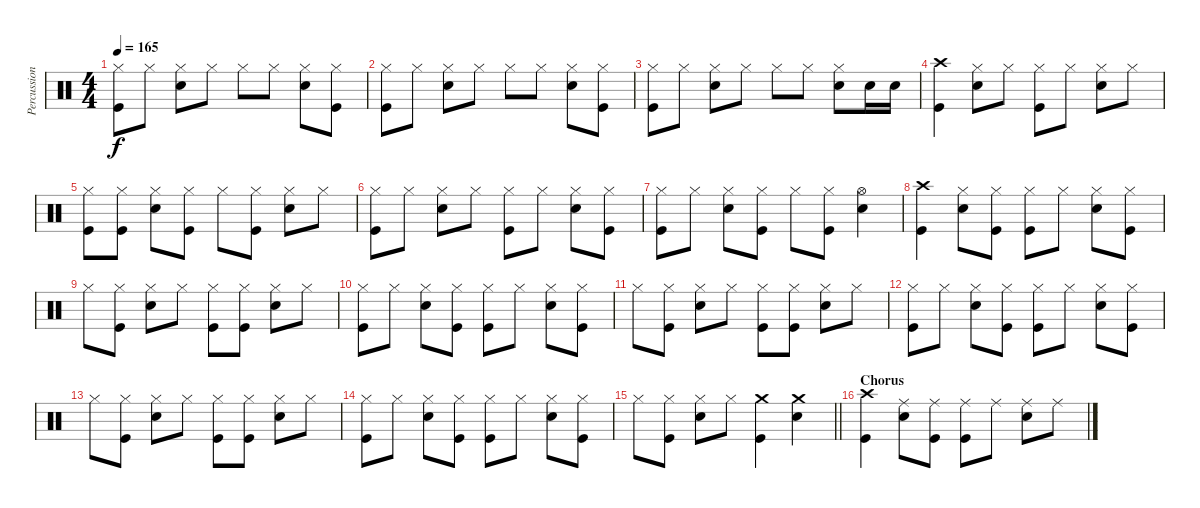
\track ("Percussion" "Percussion") {instrument percussion}
\staff {score}
\articulation defaults
\ts (4 4)
\tempo 165
\clef neutral
\ks c
("Kick (hit)" "Hi-Hat (closed)").8{dy f} "Hi-Hat (closed)".8 ("Hi-Hat (closed)" "Snare (hit) 2").8 "Hi-Hat (closed)".8 "Hi-Hat (closed)".8 "Hi-Hat (closed)".8 ("Hi-Hat (closed)" "Snare (hit) 2").8 ("Kick (hit)" "Hi-Hat (closed)").8 |
("Kick (hit)" "Hi-Hat (closed)").8 "Hi-Hat (closed)".8 ("Hi-Hat (closed)" "Snare (hit) 2").8 "Hi-Hat (closed)".8 "Hi-Hat (closed)".8 "Hi-Hat (closed)".8 ("Hi-Hat (closed)" "Snare (hit) 2").8 ("Kick (hit)" "Hi-Hat (closed)").8 |
("Kick (hit)" "Hi-Hat (closed)").8 "Hi-Hat (closed)".8 ("Hi-Hat (closed)" "Snare (hit) 2").8 "Hi-Hat (closed)".8 "Hi-Hat (closed)".8 "Hi-Hat (closed)".8 ("Hi-Hat (closed)" "Snare (hit) 2").8 "Snare (hit) 2".16 "Snare (hit) 2".16 |
("Kick (hit)" "Crash high (hit)").4 ("Hi-Hat (closed)" "Snare (hit) 2").8 "Hi-Hat (closed)".8 ("Kick (hit)" "Hi-Hat (closed)").8 "Hi-Hat (closed)".8 ("Hi-Hat (closed)" "Snare (hit) 2").8 "Hi-Hat (closed)".8 |
("Kick (hit)" "Hi-Hat (closed)").8 ("Kick (hit)" "Hi-Hat (closed)").8 ("Hi-Hat (closed)" "Snare (hit) 2").8 ("Kick (hit)" "Hi-Hat (closed)").8 "Hi-Hat (closed)".8 ("Kick (hit)" "Hi-Hat (closed)").8 ("Hi-Hat (closed)" "Snare (hit) 2").8 "Hi-Hat (closed)".8 |
("Kick (hit)" "Hi-Hat (closed)").8 "Hi-Hat (closed)".8 ("Hi-Hat (closed)" "Snare (hit) 2").8 "Hi-Hat (closed)".8 ("Kick (hit)" "Hi-Hat (closed)").8 "Hi-Hat (closed)".8 ("Hi-Hat (closed)" "Snare (hit) 2").8 ("Kick (hit)" "Hi-Hat (closed)").8 |
("Kick (hit)" "Hi-Hat (closed)").8 "Hi-Hat (closed)".8 ("Hi-Hat (closed)" "Snare (hit) 2").8 ("Kick (hit)" "Hi-Hat (closed)").8 "Hi-Hat (closed)".8 ("Kick (hit)" "Hi-Hat (closed)").8 ("Hi-Hat (open)" "Snare (hit) 2").4 |
("Kick (hit)" "Crash high (hit)").4 ("Hi-Hat (closed)" "Snare (hit) 2").8 ("Kick (hit)" "Hi-Hat (closed)").8 ("Kick (hit)" "Hi-Hat (closed)").8 "Hi-Hat (closed)".8 ("Hi-Hat (closed)" "Snare (hit) 2").8 ("Kick (hit)" "Hi-Hat (closed)").8 |
"Hi-Hat (closed)".8 ("Kick (hit)" "Hi-Hat (closed)").8 ("Hi-Hat (closed)" "Snare (hit) 2").8 "Hi-Hat (closed)".8 ("Kick (hit)" "Hi-Hat (closed)").8 ("Kick (hit)" "Hi-Hat (closed)").8 ("Hi-Hat (closed)" "Snare (hit) 2").8 "Hi-Hat (closed)".8 |
("Kick (hit)" "Hi-Hat (closed)").8 "Hi-Hat (closed)".8 ("Hi-Hat (closed)" "Snare (hit) 2").8 ("Kick (hit)" "Hi-Hat (closed)").8 ("Kick (hit)" "Hi-Hat (closed)").8 "Hi-Hat (closed)".8 ("Hi-Hat (closed)" "Snare (hit) 2").8 ("Kick (hit)" "Hi-Hat (closed)").8 |
"Hi-Hat (closed)".8 ("Kick (hit)" "Hi-Hat (closed)").8 ("Hi-Hat (closed)" "Snare (hit) 2").8 "Hi-Hat (closed)".8 ("Kick (hit)" "Hi-Hat (closed)").8 ("Kick (hit)" "Hi-Hat (closed)").8 ("Hi-Hat (closed)" "Snare (hit) 2").8 "Hi-Hat (closed)".8 |
("Kick (hit)" "Hi-Hat (closed)").8 "Hi-Hat (closed)".8 ("Hi-Hat (closed)" "Snare (hit) 2").8 ("Kick (hit)" "Hi-Hat (closed)").8 ("Kick (hit)" "Hi-Hat (closed)").8 "Hi-Hat (closed)".8 ("Hi-Hat (closed)" "Snare (hit) 2").8 ("Kick (hit)" "Hi-Hat (closed)").8 |
"Hi-Hat (closed)".8 ("Kick (hit)" "Hi-Hat (closed)").8 ("Hi-Hat (closed)" "Snare (hit) 2").8 "Hi-Hat (closed)".8 ("Kick (hit)" "Hi-Hat (closed)").8 ("Kick (hit)" "Hi-Hat (closed)").8 ("Hi-Hat (closed)" "Snare (hit) 2").8 "Hi-Hat (closed)".8 |
("Kick (hit)" "Hi-Hat (closed)").8 "Hi-Hat (closed)".8 ("Hi-Hat (closed)" "Snare (hit) 2").8 ("Kick (hit)" "Hi-Hat (closed)").8 ("Kick (hit)" "Hi-Hat (closed)").8 "Hi-Hat (closed)".8 ("Hi-Hat (closed)" "Snare (hit) 2").8 ("Kick (hit)" "Hi-Hat (closed)").8 |
\barLineRight lightlight "Hi-Hat (closed)".8
("Kick (hit)" "Hi-Hat (closed)").8 ("Hi-Hat (closed)" "Snare (hit) 2").8 "Hi-Hat (closed)".8 ("Kick (hit)" "Crash medium (hit)").4 ("Crash medium (hit)" "Snare (hit) 2").4 |
\section ("" "Chorus")
("Kick (hit)" "Crash high (hit)").4 ("Ride (middle)" "Snare (hit) 2").8 ("Kick (hit)" "Ride (middle)").8 ("Kick (hit)" "Ride (middle)").8 "Ride (middle)".8 ("Ride (middle)" "Snare (hit) 2").8 "Ride (middle)".8
